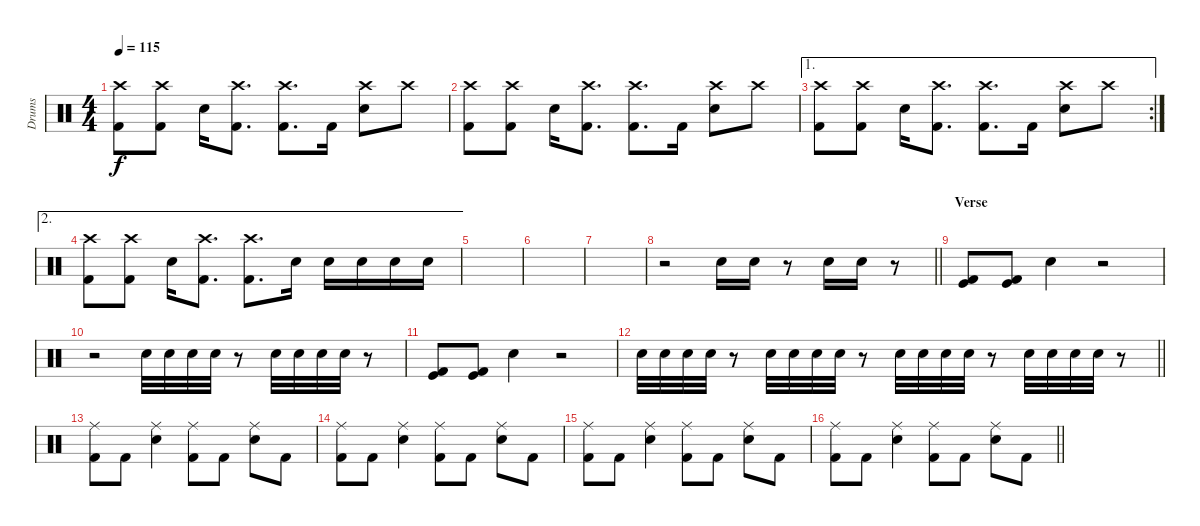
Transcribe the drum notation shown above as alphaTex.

\track ("Drums" "Drums") {instrument percussion}
\staff {score}
\articulation defaults
\ts (4 4)
\tempo 115
\clef neutral
\ks c
("Crash high (hit)" "Kick (hit) 2").8{dy f} ("Crash high (hit)" "Kick (hit) 2").8 "Snare (hit) 2".16 ("Crash high (hit)" "Kick (hit) 2").8{d} ("Crash high (hit)" "Kick (hit) 2").8{d} "Kick (hit) 2".16 ("Crash high (hit)" "Snare (hit) 2").8 "Crash high (hit)".8 |
("Crash high (hit)" "Kick (hit) 2").8 ("Crash high (hit)" "Kick (hit) 2").8 "Snare (hit) 2".16 ("Crash high (hit)" "Kick (hit) 2").8{d} ("Crash high (hit)" "Kick (hit) 2").8{d} "Kick (hit) 2".16 ("Crash high (hit)" "Snare (hit) 2").8 "Crash high (hit)".8 |
\ae 1
\rc 2
("Crash high (hit)" "Kick (hit) 2").8 ("Crash high (hit)" "Kick (hit) 2").8 "Snare (hit) 2".16 ("Crash high (hit)" "Kick (hit) 2").8{d} ("Crash high (hit)" "Kick (hit) 2").8{d} "Kick (hit) 2".16 ("Crash high (hit)" "Snare (hit) 2").8 "Crash high (hit)".8 |
\ae 2
("Crash high (hit)" "Kick (hit) 2").8 ("Crash high (hit)" "Kick (hit) 2").8 "Snare (hit) 2".16 ("Crash high (hit)" "Kick (hit) 2").8{d} ("Crash high (hit)" "Kick (hit) 2").8{d} "Snare (hit) 2".16 "Snare (hit) 2".16 "Snare (hit) 2".16 "Snare (hit) 2".16 "Snare (hit) 2".16 |
|
|
|
\barLineRight lightlight
r.2 "Snare (hit) 2".16 "Snare (hit) 2".16 r.8 "Snare (hit) 2".16 "Snare (hit) 2".16 r.8 |
\section ("" "Verse")
("Kick (hit)" "Kick (hit) 2").8{bd 60} ("Kick (hit)" "Kick (hit) 2").8{bd 60} "Snare (hit) 2".4 r.2 |
r.2 "Snare (hit) 2".32 "Snare (hit) 2".32 "Snare (hit) 2".32 "Snare (hit) 2".32 r.8 "Snare (hit) 2".32 "Snare (hit) 2".32 "Snare (hit) 2".32 "Snare (hit) 2".32 r.8 |
("Kick (hit)" "Kick (hit) 2").8{bd 60} ("Kick (hit)" "Kick (hit) 2").8{bd 60} "Snare (hit) 2".4 r.2 |
\barLineRight lightlight "Snare (hit) 2".32 "Snare (hit) 2".32 "Snare (hit) 2".32 "Snare (hit) 2".32
r.8 "Snare (hit) 2".32 "Snare (hit) 2".32 "Snare (hit) 2".32 "Snare (hit) 2".32 r.8 "Snare (hit) 2".32 "Snare (hit) 2".32 "Snare (hit) 2".32 "Snare (hit) 2".32 r.8 "Snare (hit) 2".32 "Snare (hit) 2".32 "Snare (hit) 2".32 "Snare (hit) 2".32 r.8 |
("Ride (middle)" "Kick (hit) 2").8 "Kick (hit) 2".8 ("Ride (middle)" "Electric Snare (hit)").4 ("Ride (middle)" "Kick (hit) 2").8 "Kick (hit) 2".8 ("Ride (middle)" "Electric Snare (hit)").8 "Kick (hit) 2".8 |
("Ride (middle)" "Kick (hit) 2").8 "Kick (hit) 2".8 ("Ride (middle)" "Electric Snare (hit)").4 ("Ride (middle)" "Kick (hit) 2").8 "Kick (hit) 2".8 ("Ride (middle)" "Electric Snare (hit)").8 "Kick (hit) 2".8 |
("Ride (middle)" "Kick (hit) 2").8 "Kick (hit) 2".8 ("Ride (middle)" "Electric Snare (hit)").4 ("Ride (middle)" "Kick (hit) 2").8 "Kick (hit) 2".8 ("Ride (middle)" "Electric Snare (hit)").8 "Kick (hit) 2".8 |
\barLineRight lightlight
("Ride (middle)" "Kick (hit) 2").8 "Kick (hit) 2".8 ("Ride (middle)" "Electric Snare (hit)").4 ("Ride (middle)" "Kick (hit) 2").8 "Kick (hit) 2".8 ("Ride (middle)" "Electric Snare (hit)").8 "Kick (hit) 2".8
